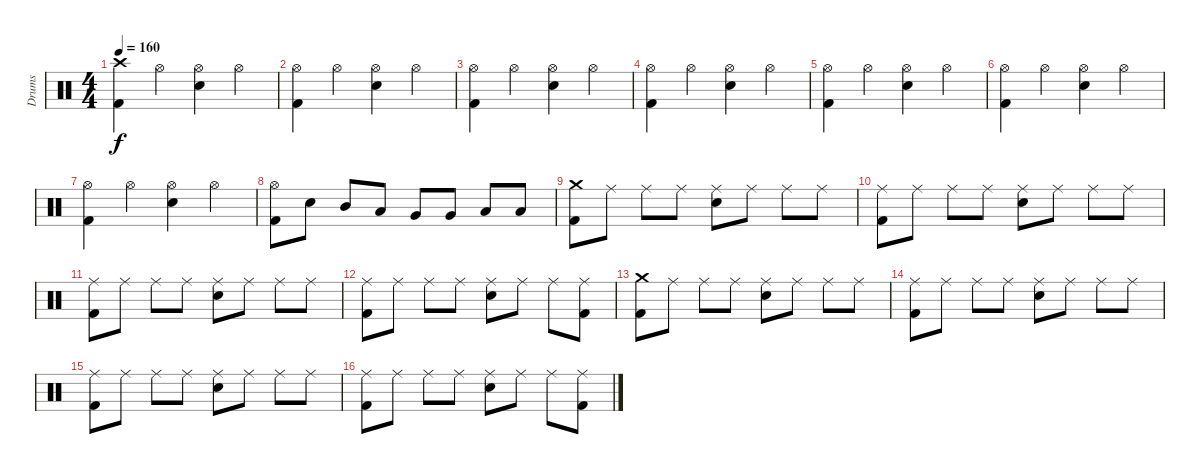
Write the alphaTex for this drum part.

\track ("Drums" "Drums") {instrument percussion}
\staff {score}
\articulation defaults
\ts (4 4)
\tempo 160
\clef neutral
\ks c
("Kick (hit) 2" "Crash high (hit)").4{dy f} "Hi-Hat (open)".4 ("Electric Snare (hit)" "Hi-Hat (open)").4 "Hi-Hat (open)".4 |
("Kick (hit) 2" "Hi-Hat (open)").4 "Hi-Hat (open)".4 ("Electric Snare (hit)" "Hi-Hat (open)").4 "Hi-Hat (open)".4 |
("Kick (hit) 2" "Hi-Hat (open)").4 "Hi-Hat (open)".4 ("Electric Snare (hit)" "Hi-Hat (open)").4 "Hi-Hat (open)".4 |
("Kick (hit) 2" "Hi-Hat (open)").4 "Hi-Hat (open)".4 ("Electric Snare (hit)" "Hi-Hat (open)").4 "Hi-Hat (open)".4 |
("Kick (hit) 2" "Hi-Hat (open)").4 "Hi-Hat (open)".4 ("Electric Snare (hit)" "Hi-Hat (open)").4 "Hi-Hat (open)".4 |
("Kick (hit) 2" "Hi-Hat (open)").4 "Hi-Hat (open)".4 ("Electric Snare (hit)" "Hi-Hat (open)").4 "Hi-Hat (open)".4 |
("Kick (hit) 2" "Hi-Hat (open)").4 "Hi-Hat (open)".4 ("Electric Snare (hit)" "Hi-Hat (open)").4 "Hi-Hat (open)".4 |
("Kick (hit) 2" "Hi-Hat (open)").8 "Electric Snare (hit)".8 "Mid Tom (hit)".8 "Low Tom (hit)".8 "Very Low Tom (hit)".8 "Very Low Tom (hit)".8 "Low Floor Tom (hit)".8 "Low Floor Tom (hit)".8 |
("Kick (hit) 2" "Crash medium (hit)").8 "Ride (middle)".8 "Ride (middle)".8 "Ride (middle)".8 ("Electric Snare (hit)" "Ride (middle)").8 "Ride (middle)".8 "Ride (middle)".8 "Ride (middle)".8 |
("Kick (hit) 2" "Ride (middle)").8 "Ride (middle)".8 "Ride (middle)".8 "Ride (middle)".8 ("Electric Snare (hit)" "Ride (middle)").8 "Ride (middle)".8 "Ride (middle)".8 "Ride (middle)".8 |
("Kick (hit) 2" "Ride (middle)").8 "Ride (middle)".8 "Ride (middle)".8 "Ride (middle)".8 ("Electric Snare (hit)" "Ride (middle)").8 "Ride (middle)".8 "Ride (middle)".8 "Ride (middle)".8 |
("Kick (hit) 2" "Ride (middle)").8 "Ride (middle)".8 "Ride (middle)".8 "Ride (middle)".8 ("Electric Snare (hit)" "Ride (middle)").8 "Ride (middle)".8 "Ride (middle)".8 ("Kick (hit) 2" "Ride (middle)").8 |
("Kick (hit) 2" "Crash medium (hit)").8 "Ride (middle)".8 "Ride (middle)".8 "Ride (middle)".8 ("Electric Snare (hit)" "Ride (middle)").8 "Ride (middle)".8 "Ride (middle)".8 "Ride (middle)".8 |
("Kick (hit) 2" "Ride (middle)").8 "Ride (middle)".8 "Ride (middle)".8 "Ride (middle)".8 ("Electric Snare (hit)" "Ride (middle)").8 "Ride (middle)".8 "Ride (middle)".8 "Ride (middle)".8 |
("Kick (hit) 2" "Ride (middle)").8 "Ride (middle)".8 "Ride (middle)".8 "Ride (middle)".8 ("Electric Snare (hit)" "Ride (middle)").8 "Ride (middle)".8 "Ride (middle)".8 "Ride (middle)".8 |
("Kick (hit) 2" "Ride (middle)").8 "Ride (middle)".8 "Ride (middle)".8 "Ride (middle)".8 ("Electric Snare (hit)" "Ride (middle)").8 "Ride (middle)".8 "Ride (middle)".8 ("Kick (hit) 2" "Ride (middle)").8
